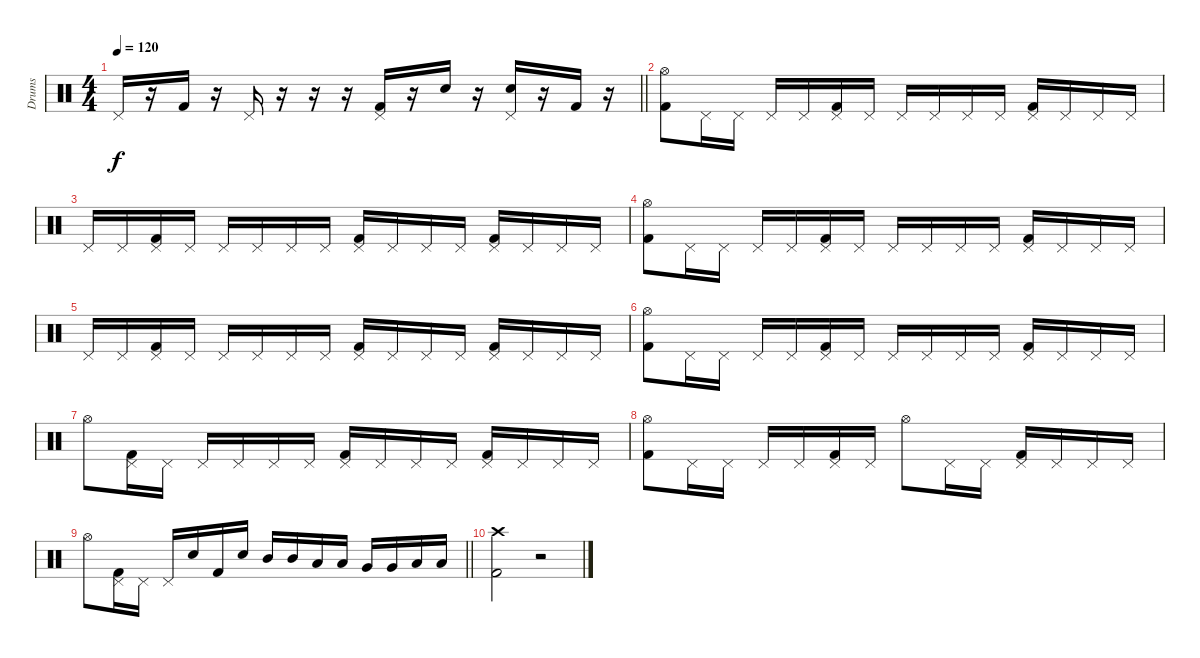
\track ("Drums" "Drums") {instrument percussion}
\staff
\articulation defaults
\ts (4 4)
\tempo 120
\clef neutral
\barLineRight lightlight
\ks c "Pedal Hi-Hat (hit)".16{dy f}
r.16 "Kick (hit) 2".16 r.16 "Pedal Hi-Hat (hit)".16 r.16 r.16 r.16 ("Pedal Hi-Hat (hit)" "Kick (hit) 2").16 r.16 "Electric Snare (hit)".16 r.16 ("Pedal Hi-Hat (hit)" "Electric Snare (hit)").16 r.16 "Kick (hit) 2".16 r.16 |
\section ("" "")
("Hi-Hat (open)" "Kick (hit) 2").8 "Pedal Hi-Hat (hit)".16 "Pedal Hi-Hat (hit)".16 "Pedal Hi-Hat (hit)".16 "Pedal Hi-Hat (hit)".16 ("Pedal Hi-Hat (hit)" "Kick (hit) 2").16 "Pedal Hi-Hat (hit)".16 "Pedal Hi-Hat (hit)".16 "Pedal Hi-Hat (hit)".16 "Pedal Hi-Hat (hit)".16 "Pedal Hi-Hat (hit)".16 ("Pedal Hi-Hat (hit)" "Kick (hit) 2").16 "Pedal Hi-Hat (hit)".16 "Pedal Hi-Hat (hit)".16 "Pedal Hi-Hat (hit)".16 |
"Pedal Hi-Hat (hit)".16 "Pedal Hi-Hat (hit)".16 ("Pedal Hi-Hat (hit)" "Kick (hit) 2").16 "Pedal Hi-Hat (hit)".16 "Pedal Hi-Hat (hit)".16 "Pedal Hi-Hat (hit)".16 "Pedal Hi-Hat (hit)".16 "Pedal Hi-Hat (hit)".16 ("Pedal Hi-Hat (hit)" "Kick (hit) 2").16 "Pedal Hi-Hat (hit)".16 "Pedal Hi-Hat (hit)".16 "Pedal Hi-Hat (hit)".16 ("Pedal Hi-Hat (hit)" "Kick (hit) 2").16 "Pedal Hi-Hat (hit)".16 "Pedal Hi-Hat (hit)".16 "Pedal Hi-Hat (hit)".16 |
("Hi-Hat (open)" "Kick (hit) 2").8 "Pedal Hi-Hat (hit)".16 "Pedal Hi-Hat (hit)".16 "Pedal Hi-Hat (hit)".16 "Pedal Hi-Hat (hit)".16 ("Pedal Hi-Hat (hit)" "Kick (hit) 2").16 "Pedal Hi-Hat (hit)".16 "Pedal Hi-Hat (hit)".16 "Pedal Hi-Hat (hit)".16 "Pedal Hi-Hat (hit)".16 "Pedal Hi-Hat (hit)".16 ("Pedal Hi-Hat (hit)" "Kick (hit) 2").16 "Pedal Hi-Hat (hit)".16 "Pedal Hi-Hat (hit)".16 "Pedal Hi-Hat (hit)".16 |
"Pedal Hi-Hat (hit)".16 "Pedal Hi-Hat (hit)".16 ("Pedal Hi-Hat (hit)" "Kick (hit) 2").16 "Pedal Hi-Hat (hit)".16 "Pedal Hi-Hat (hit)".16 "Pedal Hi-Hat (hit)".16 "Pedal Hi-Hat (hit)".16 "Pedal Hi-Hat (hit)".16 ("Pedal Hi-Hat (hit)" "Kick (hit) 2").16 "Pedal Hi-Hat (hit)".16 "Pedal Hi-Hat (hit)".16 "Pedal Hi-Hat (hit)".16 ("Pedal Hi-Hat (hit)" "Kick (hit) 2").16 "Pedal Hi-Hat (hit)".16 "Pedal Hi-Hat (hit)".16 "Pedal Hi-Hat (hit)".16 |
("Hi-Hat (open)" "Kick (hit) 2").8 "Pedal Hi-Hat (hit)".16 "Pedal Hi-Hat (hit)".16 "Pedal Hi-Hat (hit)".16 "Pedal Hi-Hat (hit)".16 ("Pedal Hi-Hat (hit)" "Kick (hit) 2").16 "Pedal Hi-Hat (hit)".16 "Pedal Hi-Hat (hit)".16 "Pedal Hi-Hat (hit)".16 "Pedal Hi-Hat (hit)".16 "Pedal Hi-Hat (hit)".16 ("Pedal Hi-Hat (hit)" "Kick (hit) 2").16 "Pedal Hi-Hat (hit)".16 "Pedal Hi-Hat (hit)".16 "Pedal Hi-Hat (hit)".16 |
"Hi-Hat (open)".8 ("Pedal Hi-Hat (hit)" "Kick (hit) 2").16 "Pedal Hi-Hat (hit)".16 "Pedal Hi-Hat (hit)".16 "Pedal Hi-Hat (hit)".16 "Pedal Hi-Hat (hit)".16 "Pedal Hi-Hat (hit)".16 ("Pedal Hi-Hat (hit)" "Kick (hit) 2").16 "Pedal Hi-Hat (hit)".16 "Pedal Hi-Hat (hit)".16 "Pedal Hi-Hat (hit)".16 ("Pedal Hi-Hat (hit)" "Kick (hit) 2").16 "Pedal Hi-Hat (hit)".16 "Pedal Hi-Hat (hit)".16 "Pedal Hi-Hat (hit)".16 |
("Hi-Hat (open)" "Kick (hit) 2").8 "Pedal Hi-Hat (hit)".16 "Pedal Hi-Hat (hit)".16 "Pedal Hi-Hat (hit)".16 "Pedal Hi-Hat (hit)".16 ("Pedal Hi-Hat (hit)" "Kick (hit) 2").16 "Pedal Hi-Hat (hit)".16 "Hi-Hat (open)".8 "Pedal Hi-Hat (hit)".16 "Pedal Hi-Hat (hit)".16 ("Pedal Hi-Hat (hit)" "Kick (hit) 2").16 "Pedal Hi-Hat (hit)".16 "Pedal Hi-Hat (hit)".16 "Pedal Hi-Hat (hit)".16 |
\barLineRight lightlight "Hi-Hat (open)".8
("Pedal Hi-Hat (hit)" "Kick (hit) 2").16 "Pedal Hi-Hat (hit)".16 "Pedal Hi-Hat (hit)".16 "Electric Snare (hit)".16 "Kick (hit) 2".16 "Electric Snare (hit)".16 "Mid Tom (hit)".16 "Mid Tom (hit)".16 "Low Tom (hit)".16 "Low Tom (hit)".16 "Very Low Tom (hit)".16 "Very Low Tom (hit)".16 "Low Floor Tom (hit)".16 "Low Floor Tom (hit)".16 |
("Crash high (hit)" "Kick (hit) 2").2 r.2
